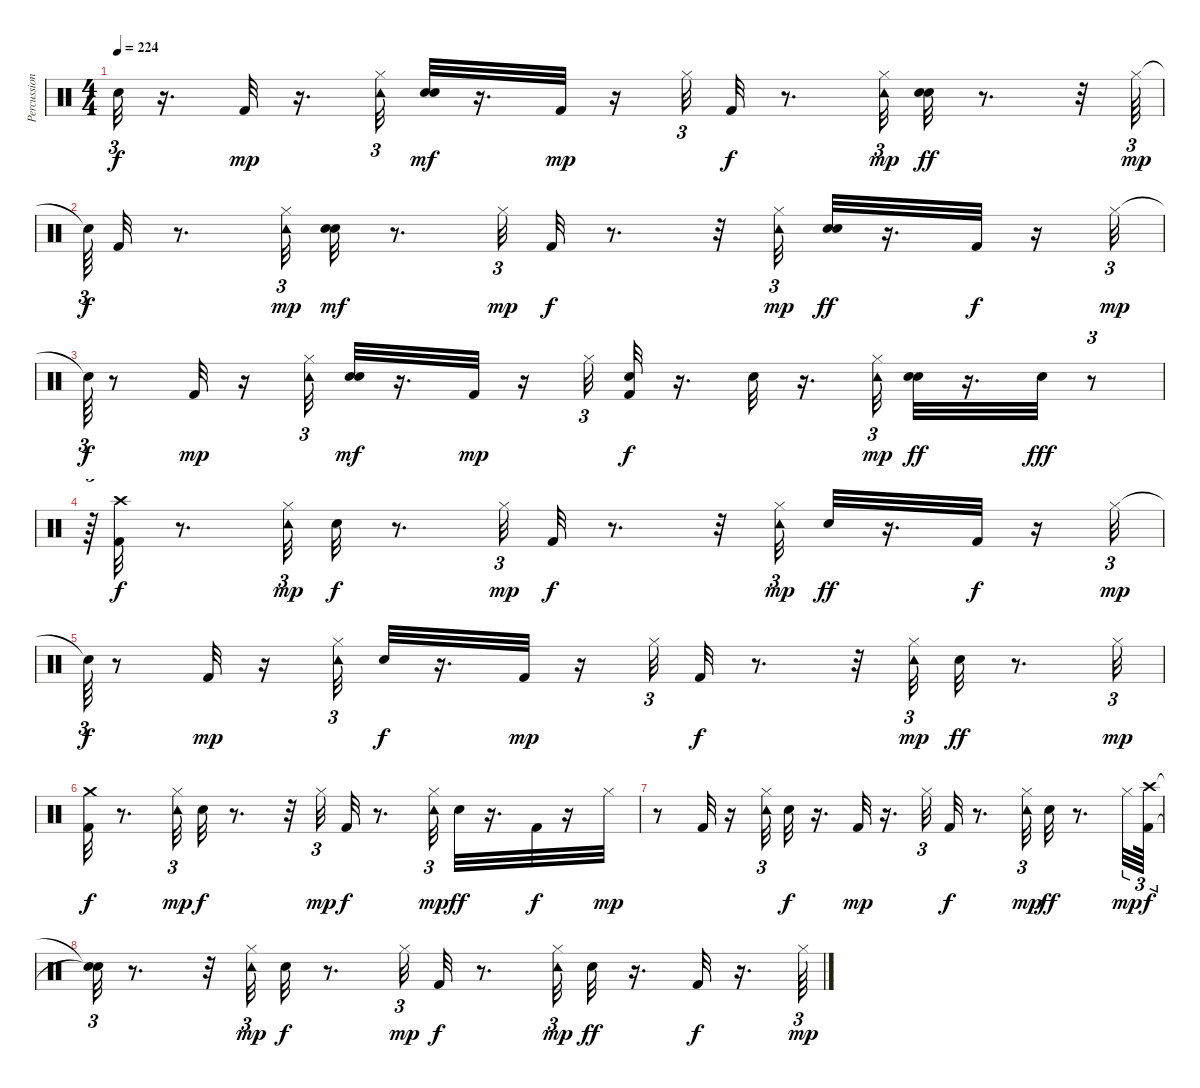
\track ("Percussion" "Percussion") {instrument percussion}
\staff {score}
\articulation defaults
\ts (4 4)
\tempo 224
\clef neutral
\ks c "Snare (hit)"{t}.32{tu (3 2) dy f}
r.16{d} "Kick (hit) 2".32{dy mp} r.16{d} ("Tambourine (hit)" "Hi-Hat (closed)").32{tu (3 2)} ("Hand Clap (hit)" "Snare (hit) 2").32{dy mf} r.16{d} "Kick (hit) 2".32{dy mp} r.16 "Hi-Hat (closed)".32{tu (3 2)} "Kick (hit) 2".32{dy f} r.8{d} ("Tambourine (hit)" "Hi-Hat (closed)").32{tu (3 2) dy mp} ("Hand Clap (hit)" "Snare (hit) 2").32{dy ff} r.8{d} r.32 "Hi-Hat (closed)".64{tu (3 2) dy mp} |
"Snare (hit)"{t}.64{tu (3 2) dy f} "Kick (hit) 2".32 r.8{d} ("Tambourine (hit)" "Hi-Hat (closed)").32{tu (3 2) dy mp} ("Hand Clap (hit)" "Snare (hit) 2").32{dy mf} r.8{d} "Hi-Hat (closed)".32{tu (3 2) dy mp} "Kick (hit) 2".32{dy f} r.8{d} r.32 ("Tambourine (hit)" "Hi-Hat (closed)").32{tu (3 2) dy mp} ("Hand Clap (hit)" "Snare (hit) 2").32{dy ff} r.16{d} "Kick (hit) 2".32{dy f} r.16 "Hi-Hat (closed)".32{tu (3 2) dy mp} |
"Snare (hit)"{t}.64{tu (3 2) dy f} r.8 "Kick (hit) 2".32{dy mp} r.16 ("Tambourine (hit)" "Hi-Hat (closed)").32{tu (3 2)} ("Hand Clap (hit)" "Snare (hit) 2").32{dy mf} r.16{d} "Kick (hit) 2".32{dy mp} r.16 "Hi-Hat (closed)".32{tu (3 2)} ("Kick (hit) 2" "Snare (hit) 2").32{dy f} r.16{d} "Snare (hit) 2".32 r.16{d} ("Tambourine (hit)" "Hi-Hat (closed)").32{tu (3 2) dy mp} ("Hand Clap (hit)" "Snare (hit) 2").32{dy ff} r.16{d} "Snare (hit) 2".32{dy fff} r.8{tu (3 2)} |
r.64{tu (3 2)} ("Kick (hit) 2" "Crash high (hit)").32{dy f} r.8{d} ("Tambourine (hit)" "Hi-Hat (closed)").32{tu (3 2) dy mp} "Snare (hit) 2".32{dy f} r.8{d} "Hi-Hat (closed)".32{tu (3 2) dy mp} "Kick (hit) 2".32{dy f} r.8{d} r.32 ("Tambourine (hit)" "Hi-Hat (closed)").32{tu (3 2) dy mp} "Snare (hit) 2".32{dy ff} r.16{d} "Kick (hit) 2".32{dy f} r.16 "Hi-Hat (closed)".32{tu (3 2) dy mp} |
"Snare (hit)"{t}.64{tu (3 2) dy f} r.8 "Kick (hit) 2".32{dy mp} r.16 ("Tambourine (hit)" "Hi-Hat (closed)").32{tu (3 2)} "Snare (hit) 2".32{dy f} r.16{d} "Kick (hit) 2".32{dy mp} r.16 "Hi-Hat (closed)".32{tu (3 2)} "Kick (hit) 2".32{dy f} r.8{d} r.32 ("Tambourine (hit)" "Hi-Hat (closed)").32{tu (3 2) dy mp} "Snare (hit) 2".32{dy ff} r.8{d} "Hi-Hat (closed)".32{tu (3 2) dy mp} |
("Kick (hit) 2" "Crash medium (hit)").32{dy f} r.8{d} ("Tambourine (hit)" "Hi-Hat (closed)").32{tu (3 2) dy mp} "Snare (hit) 2".32{dy f} r.8{d} r.32 "Hi-Hat (closed)".32{tu (3 2) dy mp} "Kick (hit) 2".32{dy f} r.8{d} ("Tambourine (hit)" "Hi-Hat (closed)").32{tu (3 2) dy mp} "Snare (hit) 2".32{dy ff} r.16{d} "Kick (hit) 2".32{dy f} r.16 "Hi-Hat (closed)".32{dy mp} |
r.8 "Kick (hit) 2".32 r.16 ("Tambourine (hit)" "Hi-Hat (closed)").32{tu (3 2)} "Snare (hit) 2".32{dy f} r.16{d} "Kick (hit) 2".32{dy mp} r.16{d} "Hi-Hat (closed)".32{tu (3 2)} "Kick (hit) 2".32{dy f} r.8{d} ("Tambourine (hit)" "Hi-Hat (closed)").32{tu (3 2) dy mp} "Snare (hit) 2".32{dy ff} r.8{d} "Hi-Hat (closed)".32{tu (3 2) dy mp} ("Kick (hit) 2" "Crash high (hit)").64{tu (3 2) dy f} |
("Snare (hit)"{t} "Snare (hit)"{t}).32{tu (3 2)} r.8{d} r.32 ("Tambourine (hit)" "Hi-Hat (closed)").32{tu (3 2) dy mp} "Snare (hit) 2".32{dy f} r.8{d} "Hi-Hat (closed)".32{tu (3 2) dy mp} "Kick (hit) 2".32{dy f} r.8{d} ("Tambourine (hit)" "Hi-Hat (closed)").32{tu (3 2) dy mp} "Snare (hit) 2".32{dy ff} r.16{d} "Kick (hit) 2".32{dy f} r.16{d} "Hi-Hat (closed)".64{tu (3 2) dy mp}
